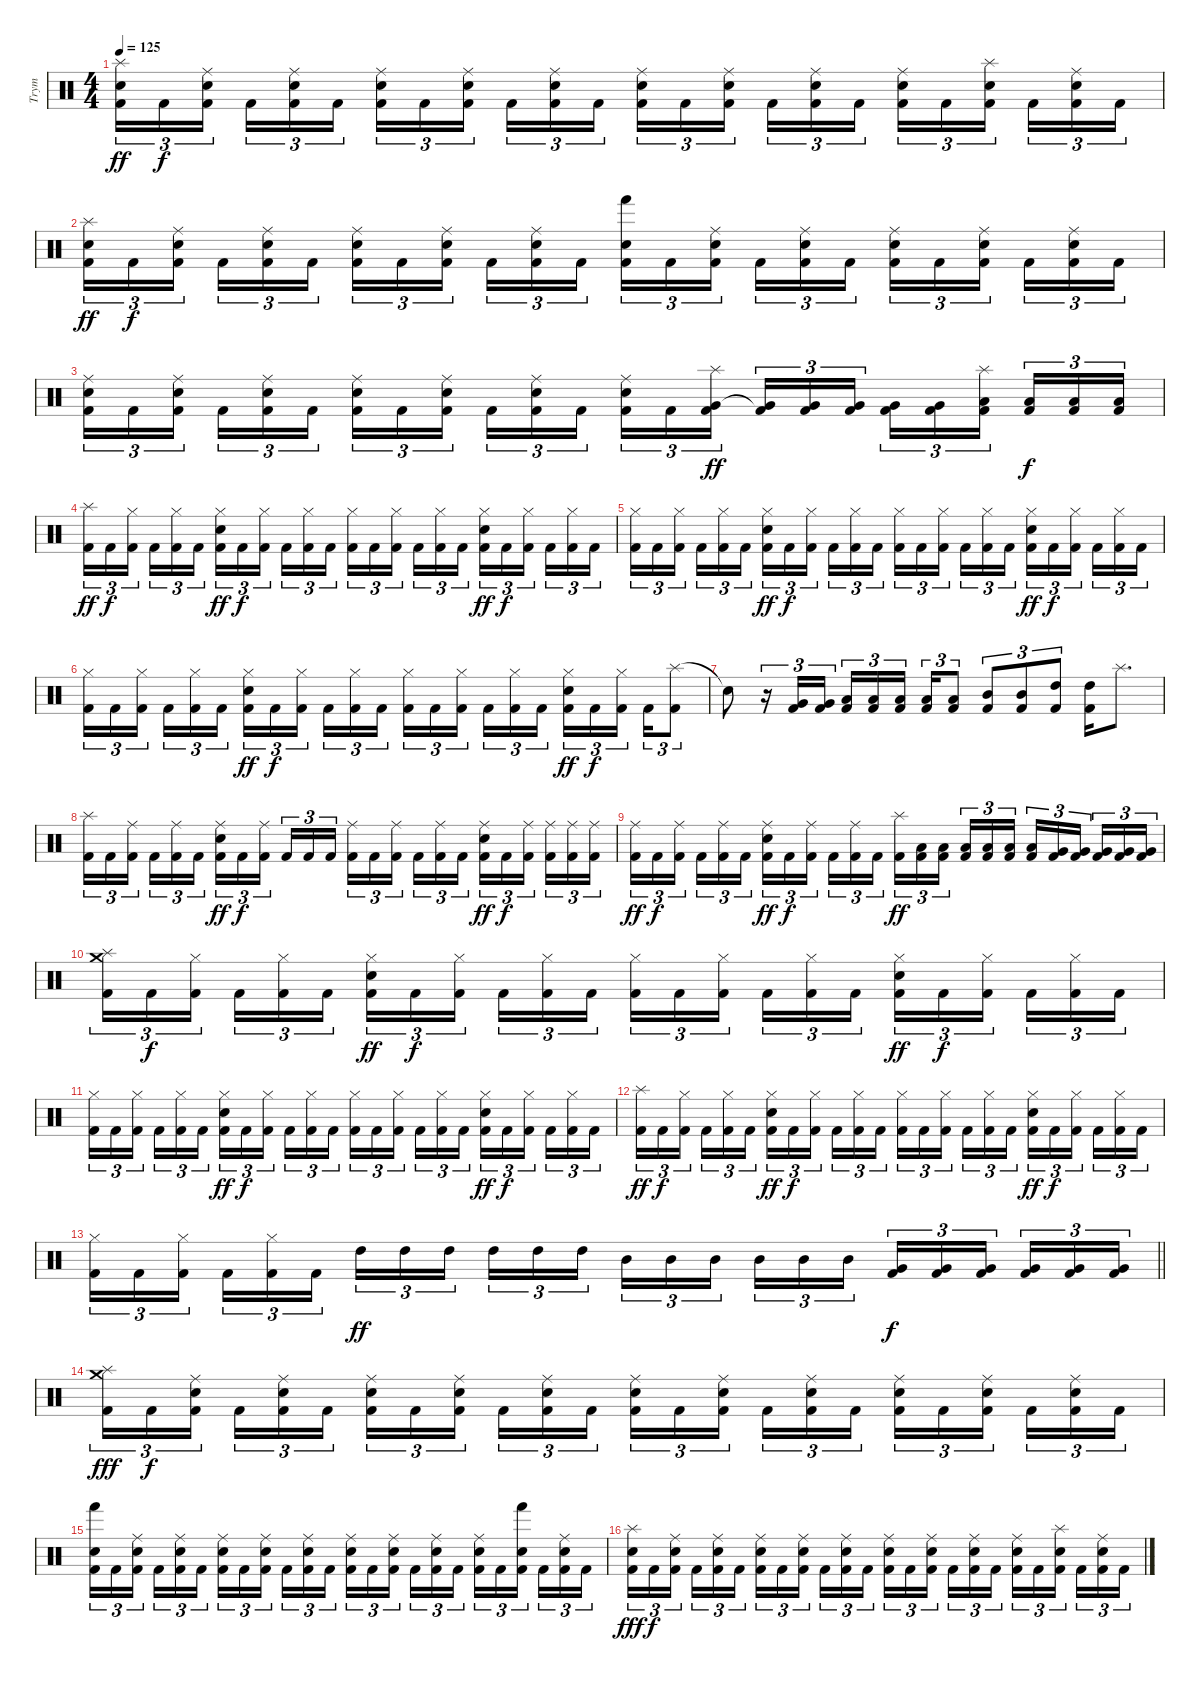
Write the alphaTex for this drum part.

\track ("Trym" "Trym") {instrument percussion}
\staff {score}
\articulation defaults
\ts (4 4)
\tempo 125
\clef neutral
\ks c
("Snare (hit) 2" "Splash (hit)" "Kick (hit) 2").16{tu (3 2) dy ff} "Kick (hit) 2".16{tu (3 2) dy f} ("Snare (hit) 2" "Ride (middle)" "Kick (hit) 2").16{tu (3 2) beam splitsecondary} "Kick (hit) 2".16{tu (3 2)} ("Snare (hit) 2" "Ride (middle)" "Kick (hit) 2").16{tu (3 2)} "Kick (hit) 2".16{tu (3 2)} ("Snare (hit) 2" "Ride (middle)" "Kick (hit) 2").16{tu (3 2)} "Kick (hit) 2".16{tu (3 2)} ("Snare (hit) 2" "Ride (middle)" "Kick (hit) 2").16{tu (3 2) beam splitsecondary} "Kick (hit) 2".16{tu (3 2)} ("Snare (hit) 2" "Ride (middle)" "Kick (hit) 2").16{tu (3 2)} "Kick (hit) 2".16{tu (3 2)} ("Snare (hit) 2" "Ride (middle)" "Kick (hit) 2").16{tu (3 2)} "Kick (hit) 2".16{tu (3 2)} ("Snare (hit) 2" "Ride (middle)" "Kick (hit) 2").16{tu (3 2) beam splitsecondary} "Kick (hit) 2".16{tu (3 2)} ("Snare (hit) 2" "Ride (middle)" "Kick (hit) 2").16{tu (3 2)} "Kick (hit) 2".16{tu (3 2)} ("Snare (hit) 2" "Ride (middle)" "Kick (hit) 2").16{tu (3 2)} "Kick (hit) 2".16{tu (3 2)} ("Snare (hit) 2" "Splash (hit)" "Kick (hit) 2").16{tu (3 2) beam splitsecondary} "Kick (hit) 2".16{tu (3 2)} ("Snare (hit) 2" "Ride (middle)" "Kick (hit) 2").16{tu (3 2)} "Kick (hit) 2".16{tu (3 2)} |
("Snare (hit) 2" "Splash (hit)" "Kick (hit) 2").16{tu (3 2) dy ff} "Kick (hit) 2".16{tu (3 2) dy f} ("Snare (hit) 2" "Ride (middle)" "Kick (hit) 2").16{tu (3 2) beam splitsecondary} "Kick (hit) 2".16{tu (3 2)} ("Snare (hit) 2" "Ride (middle)" "Kick (hit) 2").16{tu (3 2)} "Kick (hit) 2".16{tu (3 2)} ("Snare (hit) 2" "Ride (middle)" "Kick (hit) 2").16{tu (3 2)} "Kick (hit) 2".16{tu (3 2)} ("Snare (hit) 2" "Ride (middle)" "Kick (hit) 2").16{tu (3 2) beam splitsecondary} "Kick (hit) 2".16{tu (3 2)} ("Snare (hit) 2" "Ride (middle)" "Kick (hit) 2").16{tu (3 2)} "Kick (hit) 2".16{tu (3 2)} ("Snare (hit) 2" "Hand (hit)" "Kick (hit) 2").16{tu (3 2)} "Kick (hit) 2".16{tu (3 2)} ("Snare (hit) 2" "Ride (middle)" "Kick (hit) 2").16{tu (3 2) beam splitsecondary} "Kick (hit) 2".16{tu (3 2)} ("Snare (hit) 2" "Ride (middle)" "Kick (hit) 2").16{tu (3 2)} "Kick (hit) 2".16{tu (3 2)} ("Snare (hit) 2" "Ride (middle)" "Kick (hit) 2").16{tu (3 2)} "Kick (hit) 2".16{tu (3 2)} ("Snare (hit) 2" "Ride (middle)" "Kick (hit) 2").16{tu (3 2) beam splitsecondary} "Kick (hit) 2".16{tu (3 2)} ("Snare (hit) 2" "Ride (middle)" "Kick (hit) 2").16{tu (3 2)} "Kick (hit) 2".16{tu (3 2)} |
("Snare (hit) 2" "Ride (middle)" "Kick (hit) 2").16{tu (3 2)} "Kick (hit) 2".16{tu (3 2)} ("Snare (hit) 2" "Ride (middle)" "Kick (hit) 2").16{tu (3 2) beam splitsecondary} "Kick (hit) 2".16{tu (3 2)} ("Snare (hit) 2" "Ride (middle)" "Kick (hit) 2").16{tu (3 2)} "Kick (hit) 2".16{tu (3 2)} ("Snare (hit) 2" "Ride (middle)" "Kick (hit) 2").16{tu (3 2)} "Kick (hit) 2".16{tu (3 2)} ("Snare (hit) 2" "Ride (middle)" "Kick (hit) 2").16{tu (3 2) beam splitsecondary} "Kick (hit) 2".16{tu (3 2)} ("Snare (hit) 2" "Ride (middle)" "Kick (hit) 2").16{tu (3 2)} "Kick (hit) 2".16{tu (3 2)} ("Snare (hit) 2" "Ride (middle)" "Kick (hit) 2").16{tu (3 2)} "Kick (hit) 2".16{tu (3 2)} ("Splash (hit)" "Very Low Tom (hit)" "Kick (hit) 2").16{tu (3 2) dy ff beam splitsecondary} ("Very Low Tom (hit)" "Kick (hit) 2"{t}).16{tu (3 2)} ("Very Low Tom (hit)" "Kick (hit) 2").16{tu (3 2)} ("Very Low Tom (hit)" "Kick (hit) 2").16{tu (3 2)} ("Very Low Tom (hit)" "Kick (hit) 2").16{tu (3 2)} ("Very Low Tom (hit)" "Kick (hit) 2").16{tu (3 2)} ("Splash (hit)" "Low Tom (hit)" "Kick (hit) 2").16{tu (3 2) beam splitsecondary} ("Low Tom (hit)" "Kick (hit) 2").16{tu (3 2) dy f} ("Low Tom (hit)" "Kick (hit) 2").16{tu (3 2)} ("Low Tom (hit)" "Kick (hit) 2").16{tu (3 2)} |
("Splash (hit)" "Kick (hit) 2").16{tu (3 2) dy ff} "Kick (hit) 2".16{tu (3 2) dy f} ("Hi-Hat (closed)" "Kick (hit) 2").16{tu (3 2) beam splitsecondary} "Kick (hit) 2".16{tu (3 2)} ("Hi-Hat (closed)" "Kick (hit) 2").16{tu (3 2)} "Kick (hit) 2".16{tu (3 2)} ("Snare (hit) 2" "Hi-Hat (closed)" "Kick (hit) 2").16{tu (3 2) dy ff} "Kick (hit) 2".16{tu (3 2) dy f} ("Hi-Hat (closed)" "Kick (hit) 2").16{tu (3 2) beam splitsecondary} "Kick (hit) 2".16{tu (3 2)} ("Hi-Hat (closed)" "Kick (hit) 2").16{tu (3 2)} "Kick (hit) 2".16{tu (3 2)} ("Hi-Hat (closed)" "Kick (hit) 2").16{tu (3 2)} "Kick (hit) 2".16{tu (3 2)} ("Hi-Hat (closed)" "Kick (hit) 2").16{tu (3 2) beam splitsecondary} "Kick (hit) 2".16{tu (3 2)} ("Hi-Hat (closed)" "Kick (hit) 2").16{tu (3 2)} "Kick (hit) 2".16{tu (3 2)} ("Snare (hit) 2" "Hi-Hat (closed)" "Kick (hit) 2").16{tu (3 2) dy ff} "Kick (hit) 2".16{tu (3 2) dy f} ("Hi-Hat (closed)" "Kick (hit) 2").16{tu (3 2) beam splitsecondary} "Kick (hit) 2".16{tu (3 2)} ("Hi-Hat (closed)" "Kick (hit) 2").16{tu (3 2)} "Kick (hit) 2".16{tu (3 2)} |
("Hi-Hat (closed)" "Kick (hit) 2").16{tu (3 2)} "Kick (hit) 2".16{tu (3 2)} ("Hi-Hat (closed)" "Kick (hit) 2").16{tu (3 2) beam splitsecondary} "Kick (hit) 2".16{tu (3 2)} ("Hi-Hat (closed)" "Kick (hit) 2").16{tu (3 2)} "Kick (hit) 2".16{tu (3 2)} ("Snare (hit) 2" "Hi-Hat (closed)" "Kick (hit) 2").16{tu (3 2) dy ff} "Kick (hit) 2".16{tu (3 2) dy f} ("Hi-Hat (closed)" "Kick (hit) 2").16{tu (3 2) beam splitsecondary} "Kick (hit) 2".16{tu (3 2)} ("Hi-Hat (closed)" "Kick (hit) 2").16{tu (3 2)} "Kick (hit) 2".16{tu (3 2)} ("Hi-Hat (closed)" "Kick (hit) 2").16{tu (3 2)} "Kick (hit) 2".16{tu (3 2)} ("Hi-Hat (closed)" "Kick (hit) 2").16{tu (3 2) beam splitsecondary} "Kick (hit) 2".16{tu (3 2)} ("Hi-Hat (closed)" "Kick (hit) 2").16{tu (3 2)} "Kick (hit) 2".16{tu (3 2)} ("Snare (hit) 2" "Hi-Hat (closed)" "Kick (hit) 2").16{tu (3 2) dy ff} "Kick (hit) 2".16{tu (3 2) dy f} ("Hi-Hat (closed)" "Kick (hit) 2").16{tu (3 2) beam splitsecondary} "Kick (hit) 2".16{tu (3 2)} ("Hi-Hat (closed)" "Kick (hit) 2").16{tu (3 2)} "Kick (hit) 2".16{tu (3 2)} |
("Hi-Hat (closed)" "Kick (hit) 2").16{tu (3 2)} "Kick (hit) 2".16{tu (3 2)} ("Hi-Hat (closed)" "Kick (hit) 2").16{tu (3 2) beam splitsecondary} "Kick (hit) 2".16{tu (3 2)} ("Hi-Hat (closed)" "Kick (hit) 2").16{tu (3 2)} "Kick (hit) 2".16{tu (3 2)} ("Snare (hit) 2" "Hi-Hat (closed)" "Kick (hit) 2").16{tu (3 2) dy ff} "Kick (hit) 2".16{tu (3 2) dy f} ("Hi-Hat (closed)" "Kick (hit) 2").16{tu (3 2) beam splitsecondary} "Kick (hit) 2".16{tu (3 2)} ("Hi-Hat (closed)" "Kick (hit) 2").16{tu (3 2)} "Kick (hit) 2".16{tu (3 2)} ("Hi-Hat (closed)" "Kick (hit) 2").16{tu (3 2)} "Kick (hit) 2".16{tu (3 2)} ("Hi-Hat (closed)" "Kick (hit) 2").16{tu (3 2) beam splitsecondary} "Kick (hit) 2".16{tu (3 2)} ("Hi-Hat (closed)" "Kick (hit) 2").16{tu (3 2)} "Kick (hit) 2".16{tu (3 2)} ("Snare (hit) 2" "Hi-Hat (closed)" "Kick (hit) 2").16{tu (3 2) dy ff} "Kick (hit) 2".16{tu (3 2) dy f} ("Hi-Hat (closed)" "Kick (hit) 2").16{tu (3 2) beam splitsecondary} "Kick (hit) 2".16{tu (3 2)} ("Splash (hit)" "Kick (hit) 2").8{tu (3 2)} |
"Snare (hit)"{t}.8 r.16{tu (3 2)} ("Very Low Tom (hit)" "Kick (hit) 2").16{tu (3 2)} ("Very Low Tom (hit)" "Kick (hit) 2").16{tu (3 2)} ("Low Tom (hit)" "Kick (hit) 2").16{tu (3 2)} ("Low Tom (hit)" "Kick (hit) 2").16{tu (3 2)} ("Low Tom (hit)" "Kick (hit) 2").16{tu (3 2) beam splitsecondary} ("Low Tom (hit)" "Kick (hit) 2").16{tu (3 2)} ("Low Tom (hit)" "Kick (hit) 2").8{tu (3 2)} ("Mid Tom (hit)" "Kick (hit) 2").8{tu (3 2)} ("Mid Tom (hit)" "Kick (hit) 2").8{tu (3 2)} ("High Tom (hit)" "Kick (hit) 2").8{tu (3 2)} ("High Tom (hit)" "Kick (hit) 2").16 "Splash (hit)".8{d} |
("Splash (hit)" "Kick (hit) 2").16{tu (3 2)} "Kick (hit) 2".16{tu (3 2)} ("Ride (middle)" "Kick (hit) 2").16{tu (3 2) beam splitsecondary} "Kick (hit) 2".16{tu (3 2)} ("Ride (middle)" "Kick (hit) 2").16{tu (3 2)} "Kick (hit) 2".16{tu (3 2)} ("Snare (hit) 2" "Ride (middle)" "Kick (hit) 2").16{tu (3 2) dy ff} "Kick (hit) 2".16{tu (3 2) dy f} ("Ride (middle)" "Kick (hit) 2").16{tu (3 2) beam splitsecondary} "Kick (hit) 2".16{tu (3 2)} "Kick (hit) 2".16{tu (3 2)} "Kick (hit) 2".16{tu (3 2)} ("Ride (middle)" "Kick (hit) 2").16{tu (3 2)} "Kick (hit) 2".16{tu (3 2)} ("Ride (middle)" "Kick (hit) 2").16{tu (3 2) beam splitsecondary} "Kick (hit) 2".16{tu (3 2)} ("Ride (middle)" "Kick (hit) 2").16{tu (3 2)} "Kick (hit) 2".16{tu (3 2)} ("Snare (hit) 2" "Ride (middle)" "Kick (hit) 2").16{tu (3 2) dy ff} "Kick (hit) 2".16{tu (3 2) dy f} ("Ride (middle)" "Kick (hit) 2").16{tu (3 2) beam splitsecondary} ("Ride (middle)" "Kick (hit) 2").16{tu (3 2)} ("Ride (middle)" "Kick (hit) 2").16{tu (3 2)} ("Ride (middle)" "Kick (hit) 2").16{tu (3 2)} |
("Ride (middle)" "Kick (hit) 2").16{tu (3 2) dy ff} "Kick (hit) 2".16{tu (3 2) dy f} ("Ride (middle)" "Kick (hit) 2").16{tu (3 2) beam splitsecondary} "Kick (hit) 2".16{tu (3 2)} ("Ride (middle)" "Kick (hit) 2").16{tu (3 2)} "Kick (hit) 2".16{tu (3 2)} ("Snare (hit) 2" "Ride (middle)" "Kick (hit) 2").16{tu (3 2) dy ff} "Kick (hit) 2".16{tu (3 2) dy f} ("Ride (middle)" "Kick (hit) 2").16{tu (3 2) beam splitsecondary} "Kick (hit) 2".16{tu (3 2)} ("Ride (middle)" "Kick (hit) 2").16{tu (3 2)} "Kick (hit) 2".16{tu (3 2)} ("Splash (hit)" "Kick (hit) 2").16{tu (3 2) dy ff} ("Low Tom (hit)" "Kick (hit) 2").16{tu (3 2)} ("Low Tom (hit)" "Kick (hit) 2").16{tu (3 2) beam splitsecondary} ("Low Tom (hit)" "Kick (hit) 2").16{tu (3 2)} ("Low Tom (hit)" "Kick (hit) 2").16{tu (3 2)} ("Low Tom (hit)" "Kick (hit) 2").16{tu (3 2)} ("Low Tom (hit)" "Kick (hit) 2").16{tu (3 2)} ("Very Low Tom (hit)" "Kick (hit) 2").16{tu (3 2)} ("Very Low Tom (hit)" "Kick (hit) 2").16{tu (3 2) beam splitsecondary} ("Very Low Tom (hit)" "Kick (hit) 2").16{tu (3 2)} ("Very Low Tom (hit)" "Kick (hit) 2").16{tu (3 2)} ("Very Low Tom (hit)" "Kick (hit) 2").16{tu (3 2)} |
("Crash medium (hit)" "Splash (hit)" "Kick (hit) 2").16{tu (3 2)} "Kick (hit) 2".16{tu (3 2) dy f} ("Hi-Hat (closed)" "Kick (hit) 2").16{tu (3 2) beam splitsecondary} "Kick (hit) 2".16{tu (3 2)} ("Hi-Hat (closed)" "Kick (hit) 2").16{tu (3 2)} "Kick (hit) 2".16{tu (3 2)} ("Snare (hit) 2" "Hi-Hat (closed)" "Kick (hit) 2").16{tu (3 2) dy ff} "Kick (hit) 2".16{tu (3 2) dy f} ("Hi-Hat (closed)" "Kick (hit) 2").16{tu (3 2) beam splitsecondary} "Kick (hit) 2".16{tu (3 2)} ("Hi-Hat (closed)" "Kick (hit) 2").16{tu (3 2)} "Kick (hit) 2".16{tu (3 2)} ("Hi-Hat (closed)" "Kick (hit) 2").16{tu (3 2)} "Kick (hit) 2".16{tu (3 2)} ("Hi-Hat (closed)" "Kick (hit) 2").16{tu (3 2) beam splitsecondary} "Kick (hit) 2".16{tu (3 2)} ("Hi-Hat (closed)" "Kick (hit) 2").16{tu (3 2)} "Kick (hit) 2".16{tu (3 2)} ("Snare (hit) 2" "Hi-Hat (closed)" "Kick (hit) 2").16{tu (3 2) dy ff} "Kick (hit) 2".16{tu (3 2) dy f} ("Hi-Hat (closed)" "Kick (hit) 2").16{tu (3 2) beam splitsecondary} "Kick (hit) 2".16{tu (3 2)} ("Hi-Hat (closed)" "Kick (hit) 2").16{tu (3 2)} "Kick (hit) 2".16{tu (3 2)} |
("Hi-Hat (closed)" "Kick (hit) 2").16{tu (3 2)} "Kick (hit) 2".16{tu (3 2)} ("Hi-Hat (closed)" "Kick (hit) 2").16{tu (3 2) beam splitsecondary} "Kick (hit) 2".16{tu (3 2)} ("Hi-Hat (closed)" "Kick (hit) 2").16{tu (3 2)} "Kick (hit) 2".16{tu (3 2)} ("Snare (hit) 2" "Hi-Hat (closed)" "Kick (hit) 2").16{tu (3 2) dy ff} "Kick (hit) 2".16{tu (3 2) dy f} ("Hi-Hat (closed)" "Kick (hit) 2").16{tu (3 2) beam splitsecondary} "Kick (hit) 2".16{tu (3 2)} ("Hi-Hat (closed)" "Kick (hit) 2").16{tu (3 2)} "Kick (hit) 2".16{tu (3 2)} ("Hi-Hat (closed)" "Kick (hit) 2").16{tu (3 2)} "Kick (hit) 2".16{tu (3 2)} ("Hi-Hat (closed)" "Kick (hit) 2").16{tu (3 2) beam splitsecondary} "Kick (hit) 2".16{tu (3 2)} ("Hi-Hat (closed)" "Kick (hit) 2").16{tu (3 2)} "Kick (hit) 2".16{tu (3 2)} ("Snare (hit) 2" "Hi-Hat (closed)" "Kick (hit) 2").16{tu (3 2) dy ff} "Kick (hit) 2".16{tu (3 2) dy f} ("Hi-Hat (closed)" "Kick (hit) 2").16{tu (3 2) beam splitsecondary} "Kick (hit) 2".16{tu (3 2)} ("Hi-Hat (closed)" "Kick (hit) 2").16{tu (3 2)} "Kick (hit) 2".16{tu (3 2)} |
("Splash (hit)" "Kick (hit) 2").16{tu (3 2) dy ff} "Kick (hit) 2".16{tu (3 2) dy f} ("Hi-Hat (closed)" "Kick (hit) 2").16{tu (3 2) beam splitsecondary} "Kick (hit) 2".16{tu (3 2)} ("Hi-Hat (closed)" "Kick (hit) 2").16{tu (3 2)} "Kick (hit) 2".16{tu (3 2)} ("Snare (hit) 2" "Hi-Hat (closed)" "Kick (hit) 2").16{tu (3 2) dy ff} "Kick (hit) 2".16{tu (3 2) dy f} ("Hi-Hat (closed)" "Kick (hit) 2").16{tu (3 2) beam splitsecondary} "Kick (hit) 2".16{tu (3 2)} ("Hi-Hat (closed)" "Kick (hit) 2").16{tu (3 2)} "Kick (hit) 2".16{tu (3 2)} ("Hi-Hat (closed)" "Kick (hit) 2").16{tu (3 2)} "Kick (hit) 2".16{tu (3 2)} ("Hi-Hat (closed)" "Kick (hit) 2").16{tu (3 2) beam splitsecondary} "Kick (hit) 2".16{tu (3 2)} ("Hi-Hat (closed)" "Kick (hit) 2").16{tu (3 2)} "Kick (hit) 2".16{tu (3 2)} ("Snare (hit) 2" "Hi-Hat (closed)" "Kick (hit) 2").16{tu (3 2) dy ff} "Kick (hit) 2".16{tu (3 2) dy f} ("Hi-Hat (closed)" "Kick (hit) 2").16{tu (3 2) beam splitsecondary} "Kick (hit) 2".16{tu (3 2)} ("Hi-Hat (closed)" "Kick (hit) 2").16{tu (3 2)} "Kick (hit) 2".16{tu (3 2)} |
\barLineRight lightlight
("Hi-Hat (closed)" "Kick (hit) 2").16{tu (3 2)} "Kick (hit) 2".16{tu (3 2)} ("Hi-Hat (closed)" "Kick (hit) 2").16{tu (3 2) beam splitsecondary} "Kick (hit) 2".16{tu (3 2)} ("Hi-Hat (closed)" "Kick (hit) 2").16{tu (3 2)} "Kick (hit) 2".16{tu (3 2)} "High Tom (hit)".16{tu (3 2) dy ff} "High Tom (hit)".16{tu (3 2)} "High Tom (hit)".16{tu (3 2) beam splitsecondary} "High Tom (hit)".16{tu (3 2)} "High Tom (hit)".16{tu (3 2)} "High Tom (hit)".16{tu (3 2)} "Mid Tom (hit)".16{tu (3 2)} "Mid Tom (hit)".16{tu (3 2)} "Mid Tom (hit)".16{tu (3 2) beam splitsecondary} "Mid Tom (hit)".16{tu (3 2)} "Mid Tom (hit)".16{tu (3 2)} "Mid Tom (hit)".16{tu (3 2)} ("Very Low Tom (hit)" "Kick (hit) 2").16{tu (3 2) dy f} ("Very Low Tom (hit)" "Kick (hit) 2").16{tu (3 2)} ("Very Low Tom (hit)" "Kick (hit) 2").16{tu (3 2) beam splitsecondary} ("Very Low Tom (hit)" "Kick (hit) 2").16{tu (3 2)} ("Very Low Tom (hit)" "Kick (hit) 2").16{tu (3 2)} ("Very Low Tom (hit)" "Kick (hit) 2").16{tu (3 2)} |
("Crash medium (hit)" "Splash (hit)" "Kick (hit) 2").16{tu (3 2) dy fff} "Kick (hit) 2".16{tu (3 2) dy f} ("Snare (hit) 2" "Ride (middle)" "Kick (hit) 2").16{tu (3 2) beam splitsecondary} "Kick (hit) 2".16{tu (3 2)} ("Snare (hit) 2" "Ride (middle)" "Kick (hit) 2").16{tu (3 2)} "Kick (hit) 2".16{tu (3 2)} ("Snare (hit) 2" "Ride (middle)" "Kick (hit) 2").16{tu (3 2)} "Kick (hit) 2".16{tu (3 2)} ("Snare (hit) 2" "Ride (middle)" "Kick (hit) 2").16{tu (3 2) beam splitsecondary} "Kick (hit) 2".16{tu (3 2)} ("Snare (hit) 2" "Ride (middle)" "Kick (hit) 2").16{tu (3 2)} "Kick (hit) 2".16{tu (3 2)} ("Snare (hit) 2" "Ride (middle)" "Kick (hit) 2").16{tu (3 2)} "Kick (hit) 2".16{tu (3 2)} ("Snare (hit) 2" "Ride (middle)" "Kick (hit) 2").16{tu (3 2) beam splitsecondary} "Kick (hit) 2".16{tu (3 2)} ("Snare (hit) 2" "Ride (middle)" "Kick (hit) 2").16{tu (3 2)} "Kick (hit) 2".16{tu (3 2)} ("Snare (hit) 2" "Ride (middle)" "Kick (hit) 2").16{tu (3 2)} "Kick (hit) 2".16{tu (3 2)} ("Snare (hit) 2" "Ride (middle)" "Kick (hit) 2").16{tu (3 2) beam splitsecondary} "Kick (hit) 2".16{tu (3 2)} ("Snare (hit) 2" "Ride (middle)" "Kick (hit) 2").16{tu (3 2)} "Kick (hit) 2".16{tu (3 2)} |
("Snare (hit) 2" "Hand (hit)" "Kick (hit) 2").16{tu (3 2)} "Kick (hit) 2".16{tu (3 2)} ("Snare (hit) 2" "Ride (middle)" "Kick (hit) 2").16{tu (3 2) beam splitsecondary} "Kick (hit) 2".16{tu (3 2)} ("Snare (hit) 2" "Ride (middle)" "Kick (hit) 2").16{tu (3 2)} "Kick (hit) 2".16{tu (3 2)} ("Snare (hit) 2" "Ride (middle)" "Kick (hit) 2").16{tu (3 2)} "Kick (hit) 2".16{tu (3 2)} ("Snare (hit) 2" "Ride (middle)" "Kick (hit) 2").16{tu (3 2) beam splitsecondary} "Kick (hit) 2".16{tu (3 2)} ("Snare (hit) 2" "Ride (middle)" "Kick (hit) 2").16{tu (3 2)} "Kick (hit) 2".16{tu (3 2)} ("Snare (hit) 2" "Ride (middle)" "Kick (hit) 2").16{tu (3 2)} "Kick (hit) 2".16{tu (3 2)} ("Snare (hit) 2" "Ride (middle)" "Kick (hit) 2").16{tu (3 2) beam splitsecondary} "Kick (hit) 2".16{tu (3 2)} ("Snare (hit) 2" "Ride (middle)" "Kick (hit) 2").16{tu (3 2)} "Kick (hit) 2".16{tu (3 2)} ("Snare (hit) 2" "Ride (middle)" "Kick (hit) 2").16{tu (3 2)} "Kick (hit) 2".16{tu (3 2)} ("Snare (hit) 2" "Hand (hit)" "Kick (hit) 2").16{tu (3 2) beam splitsecondary} "Kick (hit) 2".16{tu (3 2)} ("Snare (hit) 2" "Ride (middle)" "Kick (hit) 2").16{tu (3 2)} "Kick (hit) 2".16{tu (3 2)} |
("Snare (hit) 2" "Splash (hit)" "Kick (hit) 2").16{tu (3 2) dy fff} "Kick (hit) 2".16{tu (3 2) dy f} ("Snare (hit) 2" "Ride (middle)" "Kick (hit) 2").16{tu (3 2) beam splitsecondary} "Kick (hit) 2".16{tu (3 2)} ("Snare (hit) 2" "Ride (middle)" "Kick (hit) 2").16{tu (3 2)} "Kick (hit) 2".16{tu (3 2)} ("Snare (hit) 2" "Ride (middle)" "Kick (hit) 2").16{tu (3 2)} "Kick (hit) 2".16{tu (3 2)} ("Snare (hit) 2" "Ride (middle)" "Kick (hit) 2").16{tu (3 2) beam splitsecondary} "Kick (hit) 2".16{tu (3 2)} ("Snare (hit) 2" "Ride (middle)" "Kick (hit) 2").16{tu (3 2)} "Kick (hit) 2".16{tu (3 2)} ("Snare (hit) 2" "Ride (middle)" "Kick (hit) 2").16{tu (3 2)} "Kick (hit) 2".16{tu (3 2)} ("Snare (hit) 2" "Ride (middle)" "Kick (hit) 2").16{tu (3 2) beam splitsecondary} "Kick (hit) 2".16{tu (3 2)} ("Snare (hit) 2" "Ride (middle)" "Kick (hit) 2").16{tu (3 2)} "Kick (hit) 2".16{tu (3 2)} ("Snare (hit) 2" "Ride (middle)" "Kick (hit) 2").16{tu (3 2)} "Kick (hit) 2".16{tu (3 2)} ("Snare (hit) 2" "Splash (hit)" "Kick (hit) 2").16{tu (3 2) beam splitsecondary} "Kick (hit) 2".16{tu (3 2)} ("Snare (hit) 2" "Ride (middle)" "Kick (hit) 2").16{tu (3 2)} "Kick (hit) 2".16{tu (3 2)}
